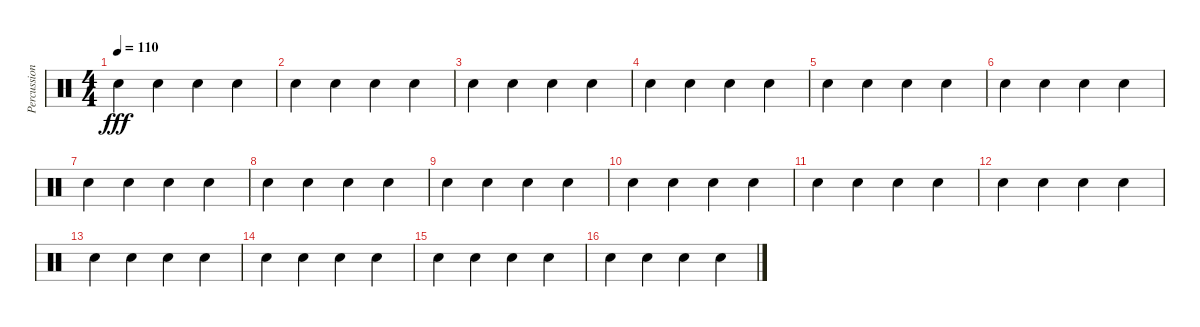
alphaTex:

\track ("Percussion" "Percussion") {mute instrument percussion}
\staff {score}
\articulation defaults
\ts (4 4)
\tempo 110
\clef neutral
\ks c "Snare (hit) 2".4{dy fff} "Snare (hit) 2".4 "Snare (hit) 2".4 "Snare (hit) 2".4
|
"Snare (hit) 2".4 "Snare (hit) 2".4 "Snare (hit) 2".4 "Snare (hit) 2".4 |
"Snare (hit) 2".4 "Snare (hit) 2".4 "Snare (hit) 2".4 "Snare (hit) 2".4 |
"Snare (hit) 2".4 "Snare (hit) 2".4 "Snare (hit) 2".4 "Snare (hit) 2".4 |
"Snare (hit) 2".4 "Snare (hit) 2".4 "Snare (hit) 2".4 "Snare (hit) 2".4 |
"Snare (hit) 2".4 "Snare (hit) 2".4 "Snare (hit) 2".4 "Snare (hit) 2".4 |
"Snare (hit) 2".4 "Snare (hit) 2".4 "Snare (hit) 2".4 "Snare (hit) 2".4 |
"Snare (hit) 2".4 "Snare (hit) 2".4 "Snare (hit) 2".4 "Snare (hit) 2".4 |
"Snare (hit) 2".4 "Snare (hit) 2".4 "Snare (hit) 2".4 "Snare (hit) 2".4 |
"Snare (hit) 2".4 "Snare (hit) 2".4 "Snare (hit) 2".4 "Snare (hit) 2".4 |
"Snare (hit) 2".4 "Snare (hit) 2".4 "Snare (hit) 2".4 "Snare (hit) 2".4 |
"Snare (hit) 2".4 "Snare (hit) 2".4 "Snare (hit) 2".4 "Snare (hit) 2".4 |
"Snare (hit) 2".4 "Snare (hit) 2".4 "Snare (hit) 2".4 "Snare (hit) 2".4 |
"Snare (hit) 2".4 "Snare (hit) 2".4 "Snare (hit) 2".4 "Snare (hit) 2".4 |
"Snare (hit) 2".4 "Snare (hit) 2".4 "Snare (hit) 2".4 "Snare (hit) 2".4 |
"Snare (hit) 2".4 "Snare (hit) 2".4 "Snare (hit) 2".4 "Snare (hit) 2".4
